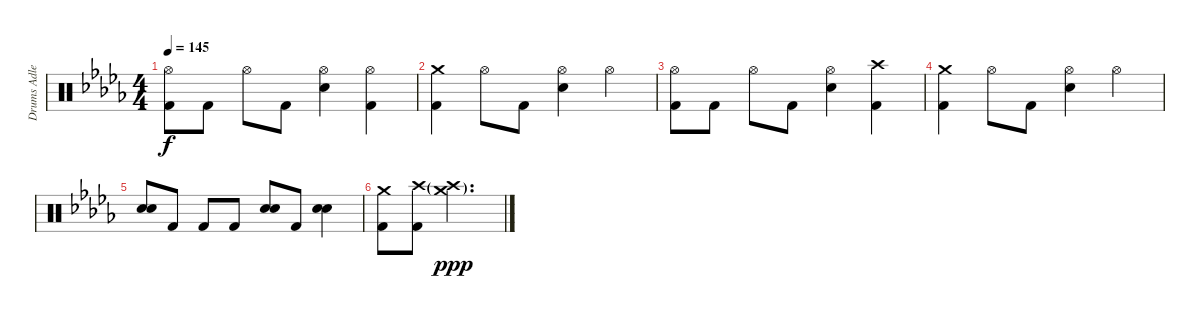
\track ("Drums Adler" "Drums Adle") {instrument percussion}
\staff {score}
\articulation defaults
\ts (4 4)
\tempo 145
\clef neutral
\ks db
("Hi-Hat (open)" "Kick (hit) 2").8{dy f} "Kick (hit) 2".8 "Hi-Hat (open)".8 "Kick (hit) 2".8 ("Hi-Hat (open)" "Snare (hit) 2").4 ("Hi-Hat (open)" "Kick (hit) 2").4 |
("Crash medium (hit)" "Kick (hit) 2").4 "Hi-Hat (open)".8 "Kick (hit) 2".8 ("Hi-Hat (open)" "Snare (hit) 2").4 "Hi-Hat (open)".4 |
("Hi-Hat (open)" "Kick (hit) 2").8 "Kick (hit) 2".8 "Hi-Hat (open)".8 "Kick (hit) 2".8 ("Hi-Hat (open)" "Snare (hit) 2").4 ("Crash high (hit)" "Kick (hit) 2").4 |
("Crash medium (hit)" "Kick (hit) 2").4 "Hi-Hat (open)".8 "Kick (hit) 2".8 ("Hi-Hat (open)" "Snare (hit) 2").4 "Hi-Hat (open)".4 |
("Snare (hit) 2" "Snare (hit) 2").8{bd 240} "Kick (hit) 2".8 "Kick (hit) 2".8 "Kick (hit) 2".8 ("Snare (hit) 2" "Snare (hit) 2").8{bd 240} "Kick (hit) 2".8 ("Snare (hit) 2" "Snare (hit) 2").4{bd 240} |
("Crash medium (hit)" "Kick (hit) 2").8 ("Crash high (hit)" "Kick (hit) 2").8 ("Crash high (hit)"{g} "Crash medium (hit)"{g}).2{d dy ppp}
